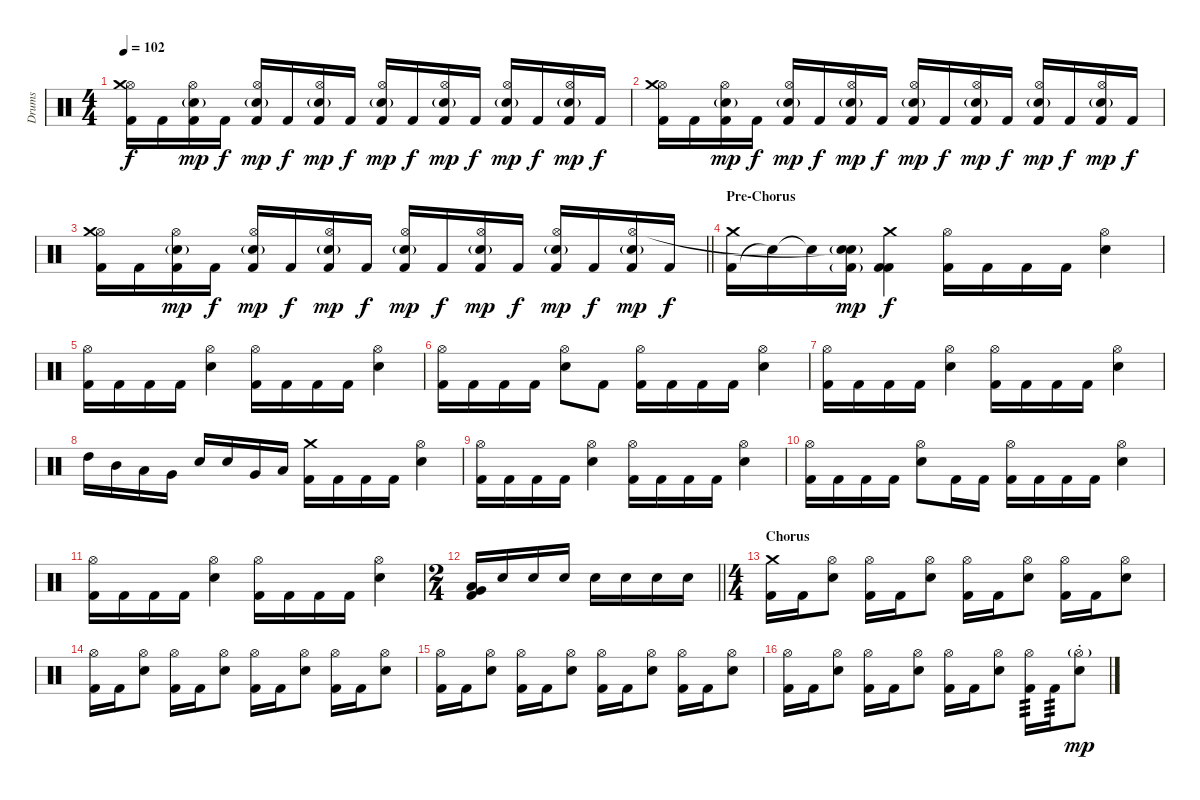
\track ("Drums" "Drums") {instrument percussion}
\staff {score}
\articulation defaults
\ts (4 4)
\tempo 102
\clef neutral
\ks c
("Kick (hit) 2" "Hi-Hat (open)" "Crash medium (hit)").16{dy f} "Kick (hit) 2".16 ("Kick (hit) 2" "Snare (hit) 2"{g} "Hi-Hat (open)").16{dy mp} "Kick (hit) 2".16{dy f} ("Kick (hit) 2" "Snare (hit) 2"{g} "Hi-Hat (open)").16{dy mp} "Kick (hit) 2".16{dy f} ("Kick (hit) 2" "Snare (hit) 2"{g} "Hi-Hat (open)").16{dy mp} "Kick (hit) 2".16{dy f} ("Kick (hit) 2" "Snare (hit) 2"{g} "Hi-Hat (open)").16{dy mp} "Kick (hit) 2".16{dy f} ("Kick (hit) 2" "Snare (hit) 2"{g} "Hi-Hat (open)").16{dy mp} "Kick (hit) 2".16{dy f} ("Kick (hit) 2" "Snare (hit) 2"{g} "Hi-Hat (open)").16{dy mp} "Kick (hit) 2".16{dy f} ("Kick (hit) 2" "Snare (hit) 2"{g} "Hi-Hat (open)").16{dy mp} "Kick (hit) 2".16{dy f} |
("Kick (hit) 2" "Hi-Hat (open)" "Crash medium (hit)").16 "Kick (hit) 2".16 ("Kick (hit) 2" "Snare (hit) 2"{g} "Hi-Hat (open)").16{dy mp} "Kick (hit) 2".16{dy f} ("Kick (hit) 2" "Snare (hit) 2"{g} "Hi-Hat (open)").16{dy mp} "Kick (hit) 2".16{dy f} ("Kick (hit) 2" "Snare (hit) 2"{g} "Hi-Hat (open)").16{dy mp} "Kick (hit) 2".16{dy f} ("Kick (hit) 2" "Snare (hit) 2"{g} "Hi-Hat (open)").16{dy mp} "Kick (hit) 2".16{dy f} ("Kick (hit) 2" "Snare (hit) 2"{g} "Hi-Hat (open)").16{dy mp} "Kick (hit) 2".16{dy f} ("Kick (hit) 2" "Snare (hit) 2"{g} "Hi-Hat (open)").16{dy mp} "Kick (hit) 2".16{dy f} ("Kick (hit) 2" "Snare (hit) 2"{g} "Hi-Hat (open)").16{dy mp} "Kick (hit) 2".16{dy f} |
\barLineRight lightlight
("Kick (hit) 2" "Hi-Hat (open)" "Crash medium (hit)").16 "Kick (hit) 2".16 ("Kick (hit) 2" "Snare (hit) 2"{g} "Hi-Hat (open)").16{dy mp} "Kick (hit) 2".16{dy f} ("Kick (hit) 2" "Snare (hit) 2"{g} "Hi-Hat (open)").16{dy mp} "Kick (hit) 2".16{dy f} ("Kick (hit) 2" "Snare (hit) 2"{g} "Hi-Hat (open)").16{dy mp} "Kick (hit) 2".16{dy f} ("Kick (hit) 2" "Snare (hit) 2"{g} "Hi-Hat (open)").16{dy mp} "Kick (hit) 2".16{dy f} ("Kick (hit) 2" "Snare (hit) 2"{g} "Hi-Hat (open)").16{dy mp} "Kick (hit) 2".16{dy f} ("Kick (hit) 2" "Snare (hit) 2"{g} "Hi-Hat (open)").16{dy mp} "Kick (hit) 2".16{dy f} ("Kick (hit) 2" "Snare (hit) 2"{g} "Hi-Hat (open)").16{dy mp} "Kick (hit) 2".16{dy f} |
\section ("" "Pre-Chorus")
("Kick (hit) 2" "Crash medium (hit)").16 "Snare (hit)"{t}.16 "Snare (hit)"{t}.16 ("Kick (hit) 2"{g} "Snare (hit) 2"{g} "Snare (hit)"{t}).16{dy mp} ("Kick (hit) 2" "Kick (hit) 2" "Crash medium (hit)").4{dy f} ("Kick (hit) 2" "Hi-Hat (open)").16 "Kick (hit) 2".16 "Kick (hit) 2".16 "Kick (hit) 2".16 ("Snare (hit) 2" "Hi-Hat (open)").4 |
("Kick (hit) 2" "Hi-Hat (open)").16 "Kick (hit) 2".16 "Kick (hit) 2".16 "Kick (hit) 2".16 ("Snare (hit) 2" "Hi-Hat (open)").4 ("Kick (hit) 2" "Hi-Hat (open)").16 "Kick (hit) 2".16 "Kick (hit) 2".16 "Kick (hit) 2".16 ("Snare (hit) 2" "Hi-Hat (open)").4 |
("Kick (hit) 2" "Hi-Hat (open)").16 "Kick (hit) 2".16 "Kick (hit) 2".16 "Kick (hit) 2".16 ("Snare (hit) 2" "Hi-Hat (open)").8 "Kick (hit) 2".8 ("Kick (hit) 2" "Hi-Hat (open)").16 "Kick (hit) 2".16 "Kick (hit) 2".16 "Kick (hit) 2".16 ("Snare (hit) 2" "Hi-Hat (open)").4 |
("Kick (hit) 2" "Hi-Hat (open)").16 "Kick (hit) 2".16 "Kick (hit) 2".16 "Kick (hit) 2".16 ("Snare (hit) 2" "Hi-Hat (open)").4 ("Kick (hit) 2" "Hi-Hat (open)").16 "Kick (hit) 2".16 "Kick (hit) 2".16 "Kick (hit) 2".16 ("Snare (hit) 2" "Hi-Hat (open)").4 |
"High Tom (hit)".16 "Mid Tom (hit)".16 "Low Tom (hit)".16 "Very Low Tom (hit)".16 "Snare (hit) 2".16 "Snare (hit) 2".16 "Very Low Tom (hit)".16 "Low Floor Tom (hit)".16 ("Kick (hit) 2" "Crash medium (hit)").16 "Kick (hit) 2".16 "Kick (hit) 2".16 "Kick (hit) 2".16 ("Snare (hit) 2" "Hi-Hat (open)").4 |
("Kick (hit) 2" "Hi-Hat (open)").16 "Kick (hit) 2".16 "Kick (hit) 2".16 "Kick (hit) 2".16 ("Snare (hit) 2" "Hi-Hat (open)").4 ("Kick (hit) 2" "Hi-Hat (open)").16 "Kick (hit) 2".16 "Kick (hit) 2".16 "Kick (hit) 2".16 ("Snare (hit) 2" "Hi-Hat (open)").4 |
("Kick (hit) 2" "Hi-Hat (open)").16 "Kick (hit) 2".16 "Kick (hit) 2".16 "Kick (hit) 2".16 ("Snare (hit) 2" "Hi-Hat (open)").8 "Kick (hit) 2".16 "Kick (hit) 2".16 ("Kick (hit) 2" "Hi-Hat (open)").16 "Kick (hit) 2".16 "Kick (hit) 2".16 "Kick (hit) 2".16 ("Snare (hit) 2" "Hi-Hat (open)").4 |
("Kick (hit) 2" "Hi-Hat (open)").16 "Kick (hit) 2".16 "Kick (hit) 2".16 "Kick (hit) 2".16 ("Snare (hit) 2" "Hi-Hat (open)").4 ("Kick (hit) 2" "Hi-Hat (open)").16 "Kick (hit) 2".16 "Kick (hit) 2".16 "Kick (hit) 2".16 ("Snare (hit) 2" "Hi-Hat (open)").4 |
\ts (2 4)
\barLineRight lightlight
("Kick (hit) 2" "Low Floor Tom (hit)" "Very Low Tom (hit)").16 "Snare (hit) 2".16 "Snare (hit) 2".16 "Snare (hit) 2".16 "Snare (hit) 2".16 "Snare (hit) 2".16 "Snare (hit) 2".16 "Snare (hit) 2".16 |
\ts (4 4)
\section ("" "Chorus")
("Kick (hit) 2" "Crash medium (hit)").16 "Kick (hit) 2".16 ("Snare (hit) 2" "Hi-Hat (open)").8 ("Kick (hit) 2" "Hi-Hat (open)").16 "Kick (hit) 2".16 ("Snare (hit) 2" "Hi-Hat (open)").8 ("Kick (hit) 2" "Hi-Hat (open)").16 "Kick (hit) 2".16 ("Snare (hit) 2" "Hi-Hat (open)").8 ("Kick (hit) 2" "Hi-Hat (open)").16 "Kick (hit) 2".16 ("Snare (hit) 2" "Hi-Hat (open)").8 |
("Kick (hit) 2" "Hi-Hat (open)").16 "Kick (hit) 2".16 ("Snare (hit) 2" "Hi-Hat (open)").8 ("Kick (hit) 2" "Hi-Hat (open)").16 "Kick (hit) 2".16 ("Snare (hit) 2" "Hi-Hat (open)").8 ("Kick (hit) 2" "Hi-Hat (open)").16 "Kick (hit) 2".16 ("Snare (hit) 2" "Hi-Hat (open)").8 ("Kick (hit) 2" "Hi-Hat (open)").16 "Kick (hit) 2".16 ("Snare (hit) 2" "Hi-Hat (open)").8 |
("Kick (hit) 2" "Hi-Hat (open)").16 "Kick (hit) 2".16 ("Snare (hit) 2" "Hi-Hat (open)").8 ("Kick (hit) 2" "Hi-Hat (open)").16 "Kick (hit) 2".16 ("Snare (hit) 2" "Hi-Hat (open)").8 ("Kick (hit) 2" "Hi-Hat (open)").16 "Kick (hit) 2".16 ("Snare (hit) 2" "Hi-Hat (open)").8 ("Kick (hit) 2" "Hi-Hat (open)").16 "Kick (hit) 2".16 ("Snare (hit) 2" "Hi-Hat (open)").8 |
("Kick (hit) 2" "Hi-Hat (open)").16 "Kick (hit) 2".16 ("Snare (hit) 2" "Hi-Hat (open)").8 ("Kick (hit) 2" "Hi-Hat (open)").16 "Kick (hit) 2".16 ("Snare (hit) 2" "Hi-Hat (open)").8 ("Kick (hit) 2" "Hi-Hat (open)").16 "Kick (hit) 2".16 ("Snare (hit) 2" "Hi-Hat (open)").8 ("Kick (hit) 2" "Hi-Hat (open)").16{tp 3} "Kick (hit) 2".16{tp 3} ("Snare (hit) 2" "Hi-Hat (open)"{g st}).8{dy mp}
